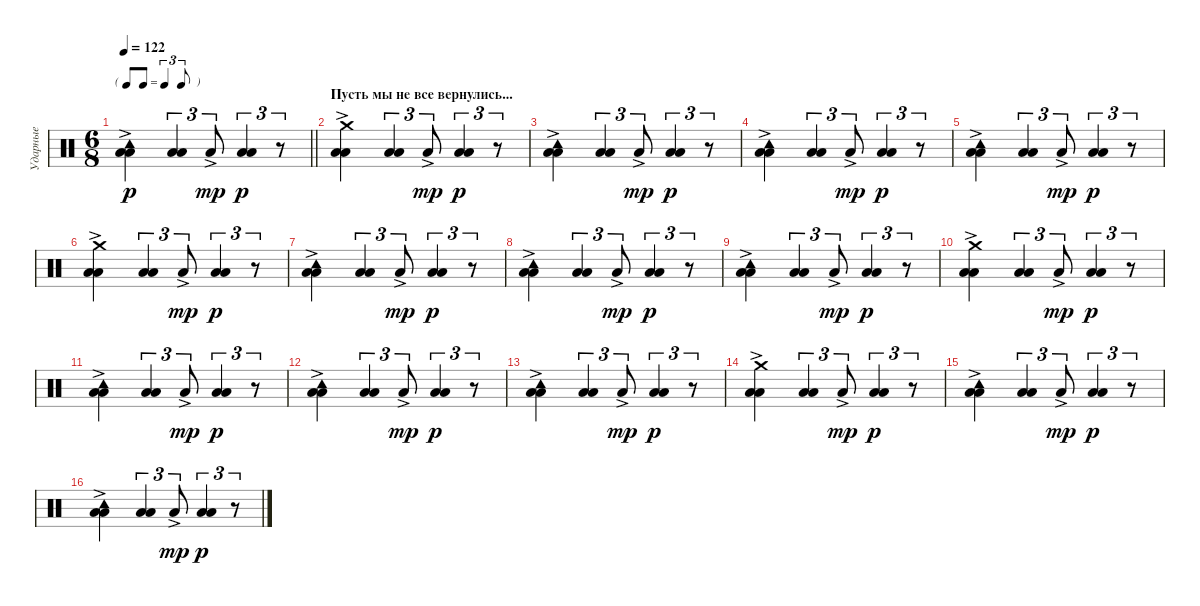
\track ("Ударные" "Ударные") {instrument percussion}
\staff {score}
\articulation defaults
\ts (6 8)
\tf triplet8th
\tempo 122
\clef neutral
\barLineRight lightlight
\ks c
("Low Floor Tom (hit)"{ac} "Low Tom (hit)" "Tambourine (hit)").4{dy p} ("Low Floor Tom (hit)" "Low Tom (hit)").4{tu (3 2)} "Low Tom (hit)"{ac}.8{tu (3 2) dy mp} ("Low Floor Tom (hit)" "Low Tom (hit)").4{tu (3 2) dy p} r.8{tu (3 2)} |
\section ("" "Пусть мы не все вернулись...")
("Low Floor Tom (hit)"{ac} "Low Tom (hit)" "Crash medium (hit)").4 ("Low Floor Tom (hit)" "Low Tom (hit)").4{tu (3 2)} "Low Tom (hit)"{ac}.8{tu (3 2) dy mp} ("Low Floor Tom (hit)" "Low Tom (hit)").4{tu (3 2) dy p} r.8{tu (3 2)} |
("Low Floor Tom (hit)"{ac} "Low Tom (hit)" "Tambourine (hit)").4 ("Low Floor Tom (hit)" "Low Tom (hit)").4{tu (3 2)} "Low Tom (hit)"{ac}.8{tu (3 2) dy mp} ("Low Floor Tom (hit)" "Low Tom (hit)").4{tu (3 2) dy p} r.8{tu (3 2)} |
("Low Floor Tom (hit)"{ac} "Low Tom (hit)" "Tambourine (hit)").4 ("Low Floor Tom (hit)" "Low Tom (hit)").4{tu (3 2)} "Low Tom (hit)"{ac}.8{tu (3 2) dy mp} ("Low Floor Tom (hit)" "Low Tom (hit)").4{tu (3 2) dy p} r.8{tu (3 2)} |
("Low Floor Tom (hit)"{ac} "Low Tom (hit)" "Tambourine (hit)").4 ("Low Floor Tom (hit)" "Low Tom (hit)").4{tu (3 2)} "Low Tom (hit)"{ac}.8{tu (3 2) dy mp} ("Low Floor Tom (hit)" "Low Tom (hit)").4{tu (3 2) dy p} r.8{tu (3 2)} |
("Low Floor Tom (hit)"{ac} "Low Tom (hit)" "Crash medium (hit)").4 ("Low Floor Tom (hit)" "Low Tom (hit)").4{tu (3 2)} "Low Tom (hit)"{ac}.8{tu (3 2) dy mp} ("Low Floor Tom (hit)" "Low Tom (hit)").4{tu (3 2) dy p} r.8{tu (3 2)} |
("Low Floor Tom (hit)"{ac} "Low Tom (hit)" "Tambourine (hit)").4 ("Low Floor Tom (hit)" "Low Tom (hit)").4{tu (3 2)} "Low Tom (hit)"{ac}.8{tu (3 2) dy mp} ("Low Floor Tom (hit)" "Low Tom (hit)").4{tu (3 2) dy p} r.8{tu (3 2)} |
("Low Floor Tom (hit)"{ac} "Low Tom (hit)" "Tambourine (hit)").4 ("Low Floor Tom (hit)" "Low Tom (hit)").4{tu (3 2)} "Low Tom (hit)"{ac}.8{tu (3 2) dy mp} ("Low Floor Tom (hit)" "Low Tom (hit)").4{tu (3 2) dy p} r.8{tu (3 2)} |
("Low Floor Tom (hit)"{ac} "Low Tom (hit)" "Tambourine (hit)").4 ("Low Floor Tom (hit)" "Low Tom (hit)").4{tu (3 2)} "Low Tom (hit)"{ac}.8{tu (3 2) dy mp} ("Low Floor Tom (hit)" "Low Tom (hit)").4{tu (3 2) dy p} r.8{tu (3 2)} |
("Low Floor Tom (hit)"{ac} "Low Tom (hit)" "Crash medium (hit)").4 ("Low Floor Tom (hit)" "Low Tom (hit)").4{tu (3 2)} "Low Tom (hit)"{ac}.8{tu (3 2) dy mp} ("Low Floor Tom (hit)" "Low Tom (hit)").4{tu (3 2) dy p} r.8{tu (3 2)} |
("Low Floor Tom (hit)"{ac} "Low Tom (hit)" "Tambourine (hit)").4 ("Low Floor Tom (hit)" "Low Tom (hit)").4{tu (3 2)} "Low Tom (hit)"{ac}.8{tu (3 2) dy mp} ("Low Floor Tom (hit)" "Low Tom (hit)").4{tu (3 2) dy p} r.8{tu (3 2)} |
("Low Floor Tom (hit)"{ac} "Low Tom (hit)" "Tambourine (hit)").4 ("Low Floor Tom (hit)" "Low Tom (hit)").4{tu (3 2)} "Low Tom (hit)"{ac}.8{tu (3 2) dy mp} ("Low Floor Tom (hit)" "Low Tom (hit)").4{tu (3 2) dy p} r.8{tu (3 2)} |
("Low Floor Tom (hit)"{ac} "Low Tom (hit)" "Tambourine (hit)").4 ("Low Floor Tom (hit)" "Low Tom (hit)").4{tu (3 2)} "Low Tom (hit)"{ac}.8{tu (3 2) dy mp} ("Low Floor Tom (hit)" "Low Tom (hit)").4{tu (3 2) dy p} r.8{tu (3 2)} |
("Low Floor Tom (hit)"{ac} "Low Tom (hit)" "Crash medium (hit)").4 ("Low Floor Tom (hit)" "Low Tom (hit)").4{tu (3 2)} "Low Tom (hit)"{ac}.8{tu (3 2) dy mp} ("Low Floor Tom (hit)" "Low Tom (hit)").4{tu (3 2) dy p} r.8{tu (3 2)} |
("Low Floor Tom (hit)"{ac} "Low Tom (hit)" "Tambourine (hit)").4 ("Low Floor Tom (hit)" "Low Tom (hit)").4{tu (3 2)} "Low Tom (hit)"{ac}.8{tu (3 2) dy mp} ("Low Floor Tom (hit)" "Low Tom (hit)").4{tu (3 2) dy p} r.8{tu (3 2)} |
("Low Floor Tom (hit)"{ac} "Low Tom (hit)" "Tambourine (hit)").4 ("Low Floor Tom (hit)" "Low Tom (hit)").4{tu (3 2)} "Low Tom (hit)"{ac}.8{tu (3 2) dy mp} ("Low Floor Tom (hit)" "Low Tom (hit)").4{tu (3 2) dy p} r.8{tu (3 2)}
